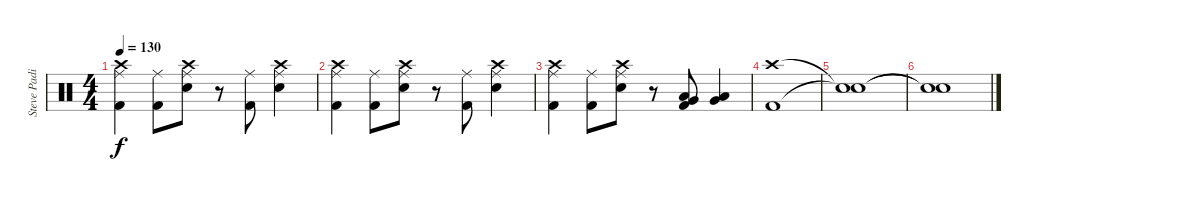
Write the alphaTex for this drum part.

\track ("Steve Padin" "Steve Padi") {instrument percussion}
\staff {score}
\articulation defaults
\ts (4 4)
\tempo 130
\clef neutral
\ks c
("Crash high (hit)" "Ride (middle)" "Kick (hit) 2").4{dy f} ("Ride (middle)" "Kick (hit) 2").8 ("Crash high (hit)" "Ride (middle)" "Electric Snare (hit)").8 r.8 ("Ride (middle)" "Kick (hit) 2").8 ("Crash high (hit)" "Ride (middle)" "Electric Snare (hit)").4 |
("Crash high (hit)" "Ride (middle)" "Kick (hit) 2").4 ("Ride (middle)" "Kick (hit) 2").8 ("Crash high (hit)" "Ride (middle)" "Electric Snare (hit)").8 r.8 ("Ride (middle)" "Kick (hit) 2").8 ("Crash high (hit)" "Ride (middle)" "Electric Snare (hit)").4 |
("Crash high (hit)" "Ride (middle)" "Kick (hit) 2").4 ("Ride (middle)" "Kick (hit) 2").8 ("Crash high (hit)" "Ride (middle)" "Electric Snare (hit)").8 r.8 ("Low Tom (hit)" "Very Low Tom (hit)" "Kick (hit) 2").8 ("Low Tom (hit)" "Very Low Tom (hit)").4 |
("Crash high (hit)" "Kick (hit) 2").1 |
("Snare (hit)"{t} "Snare (hit)"{t}).1 |
("Snare (hit)"{t} "Snare (hit)"{t}).1
